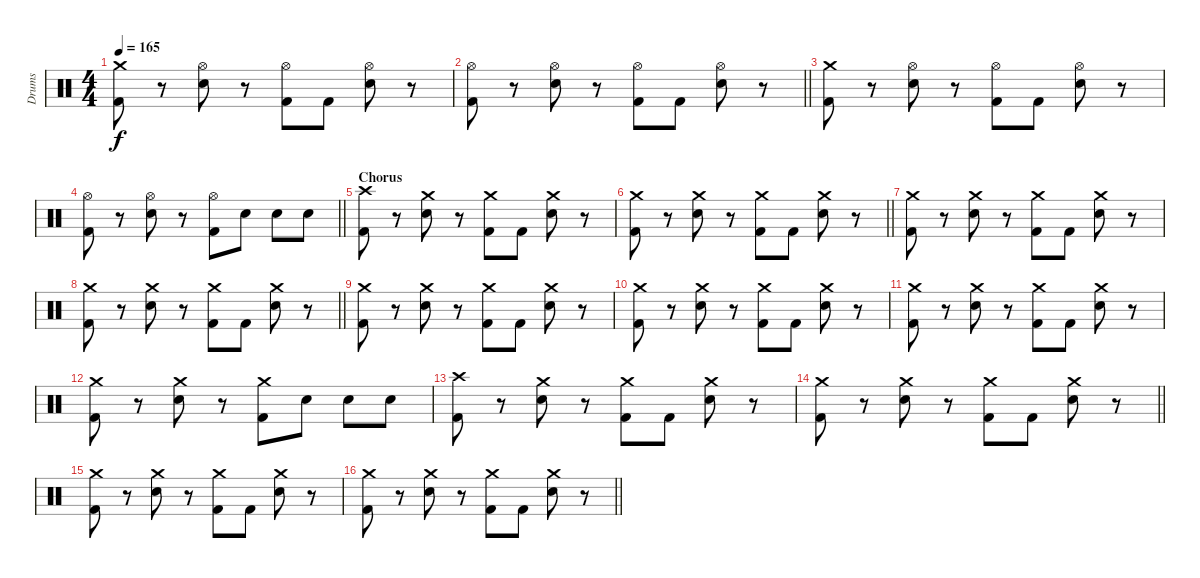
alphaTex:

\track ("Drums" "Drums") {instrument percussion}
\staff {score}
\articulation defaults
\ts (4 4)
\tempo 165
\clef neutral
\ks c
("Crash medium (hit)" "Kick (hit) 2").8{dy f} r.8 ("Hi-Hat (open)" "Electric Snare (hit)").8 r.8 ("Hi-Hat (open)" "Kick (hit) 2").8 "Kick (hit) 2".8 ("Hi-Hat (open)" "Electric Snare (hit)").8 r.8 |
\barLineRight lightlight
("Hi-Hat (open)" "Kick (hit) 2").8 r.8 ("Hi-Hat (open)" "Electric Snare (hit)").8 r.8 ("Hi-Hat (open)" "Kick (hit) 2").8 "Kick (hit) 2".8 ("Hi-Hat (open)" "Electric Snare (hit)").8 r.8 |
("Crash medium (hit)" "Kick (hit) 2").8 r.8 ("Hi-Hat (open)" "Electric Snare (hit)").8 r.8 ("Hi-Hat (open)" "Kick (hit) 2").8 "Kick (hit) 2".8 ("Hi-Hat (open)" "Electric Snare (hit)").8 r.8 |
\barLineRight lightlight
("Hi-Hat (open)" "Kick (hit) 2").8 r.8 ("Hi-Hat (open)" "Electric Snare (hit)").8 r.8 ("Hi-Hat (open)" "Kick (hit) 2").8 "Electric Snare (hit)".8 "Electric Snare (hit)".8 "Electric Snare (hit)".8 |
\section ("" "Chorus")
("Crash high (hit)" "Kick (hit) 2").8 r.8 ("Crash medium (hit)" "Electric Snare (hit)").8 r.8 ("Crash medium (hit)" "Kick (hit) 2").8 "Kick (hit) 2".8 ("Crash medium (hit)" "Electric Snare (hit)").8 r.8 |
\barLineRight lightlight
("Crash medium (hit)" "Kick (hit) 2").8 r.8 ("Crash medium (hit)" "Electric Snare (hit)").8 r.8 ("Crash medium (hit)" "Kick (hit) 2").8 "Kick (hit) 2".8 ("Crash medium (hit)" "Electric Snare (hit)").8 r.8 |
("Crash medium (hit)" "Kick (hit) 2").8 r.8 ("Crash medium (hit)" "Electric Snare (hit)").8 r.8 ("Crash medium (hit)" "Kick (hit) 2").8 "Kick (hit) 2".8 ("Crash medium (hit)" "Electric Snare (hit)").8 r.8 |
\barLineRight lightlight
("Crash medium (hit)" "Kick (hit) 2").8 r.8 ("Crash medium (hit)" "Electric Snare (hit)").8 r.8 ("Crash medium (hit)" "Kick (hit) 2").8 "Kick (hit) 2".8 ("Crash medium (hit)" "Electric Snare (hit)").8 r.8 |
("Crash medium (hit)" "Kick (hit) 2").8 r.8 ("Crash medium (hit)" "Electric Snare (hit)").8 r.8 ("Crash medium (hit)" "Kick (hit) 2").8 "Kick (hit) 2".8 ("Crash medium (hit)" "Electric Snare (hit)").8 r.8 |
("Crash medium (hit)" "Kick (hit) 2").8 r.8 ("Crash medium (hit)" "Electric Snare (hit)").8 r.8 ("Crash medium (hit)" "Kick (hit) 2").8 "Kick (hit) 2".8 ("Crash medium (hit)" "Electric Snare (hit)").8 r.8 |
("Crash medium (hit)" "Kick (hit) 2").8 r.8 ("Crash medium (hit)" "Electric Snare (hit)").8 r.8 ("Crash medium (hit)" "Kick (hit) 2").8 "Kick (hit) 2".8 ("Crash medium (hit)" "Electric Snare (hit)").8 r.8 |
("Crash medium (hit)" "Kick (hit) 2").8 r.8 ("Crash medium (hit)" "Electric Snare (hit)").8 r.8 ("Crash medium (hit)" "Kick (hit) 2").8 "Electric Snare (hit)".8 "Electric Snare (hit)".8 "Electric Snare (hit)".8 |
("Crash high (hit)" "Kick (hit) 2").8 r.8 ("Crash medium (hit)" "Electric Snare (hit)").8 r.8 ("Crash medium (hit)" "Kick (hit) 2").8 "Kick (hit) 2".8 ("Crash medium (hit)" "Electric Snare (hit)").8 r.8 |
\barLineRight lightlight
("Crash medium (hit)" "Kick (hit) 2").8 r.8 ("Crash medium (hit)" "Electric Snare (hit)").8 r.8 ("Crash medium (hit)" "Kick (hit) 2").8 "Kick (hit) 2".8 ("Crash medium (hit)" "Electric Snare (hit)").8 r.8 |
("Crash medium (hit)" "Kick (hit) 2").8 r.8 ("Crash medium (hit)" "Electric Snare (hit)").8 r.8 ("Crash medium (hit)" "Kick (hit) 2").8 "Kick (hit) 2".8 ("Crash medium (hit)" "Electric Snare (hit)").8 r.8 |
\barLineRight lightlight
("Crash medium (hit)" "Kick (hit) 2").8 r.8 ("Crash medium (hit)" "Electric Snare (hit)").8 r.8 ("Crash medium (hit)" "Kick (hit) 2").8 "Kick (hit) 2".8 ("Crash medium (hit)" "Electric Snare (hit)").8 r.8
